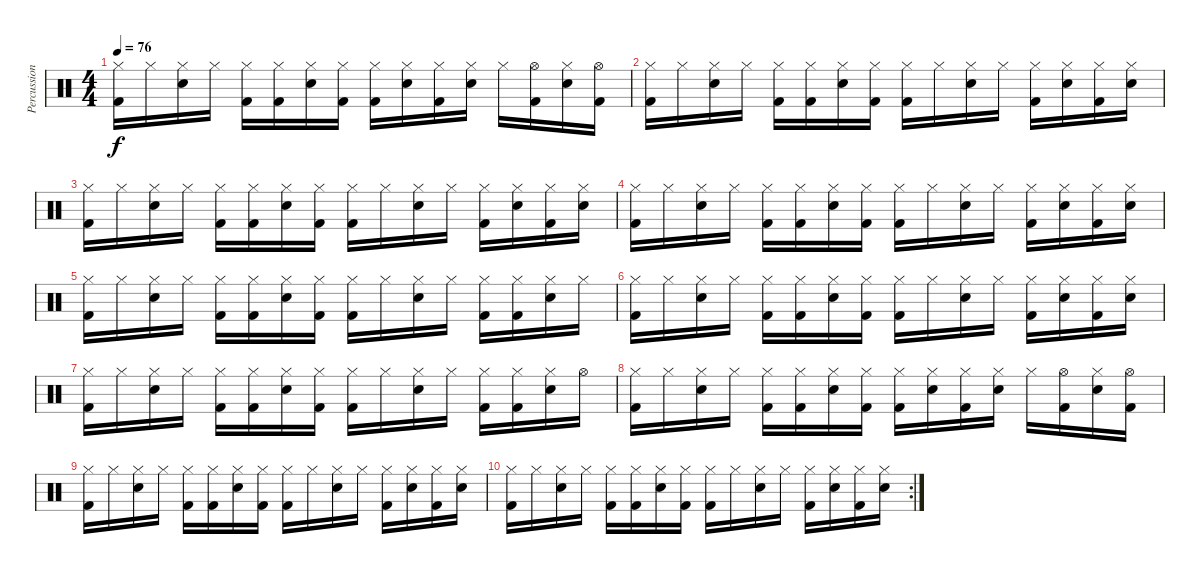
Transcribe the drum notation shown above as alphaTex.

\track ("Percussion" "Percussion") {instrument percussion}
\staff {score}
\articulation defaults
\ts (4 4)
\tempo 76
\clef neutral
\ks c
("Hi-Hat (closed)" "Kick (hit) 2").16{dy f} "Hi-Hat (closed)".16 ("Hi-Hat (closed)" "Snare (hit) 2").16 "Hi-Hat (closed)".16 ("Hi-Hat (closed)" "Kick (hit) 2").16 ("Hi-Hat (closed)" "Kick (hit) 2").16 ("Hi-Hat (closed)" "Snare (hit) 2").16 ("Hi-Hat (closed)" "Kick (hit) 2").16 ("Hi-Hat (closed)" "Kick (hit) 2").16 ("Hi-Hat (closed)" "Snare (hit) 2").16 ("Hi-Hat (closed)" "Kick (hit) 2").16 ("Hi-Hat (closed)" "Snare (hit) 2").16 "Hi-Hat (closed)".16 ("Hi-Hat (open)" "Kick (hit) 2").16 ("Hi-Hat (closed)" "Snare (hit) 2").16 ("Hi-Hat (open)" "Kick (hit) 2").16 |
("Hi-Hat (closed)" "Kick (hit) 2").16 "Hi-Hat (closed)".16 ("Hi-Hat (closed)" "Snare (hit) 2").16 "Hi-Hat (closed)".16 ("Hi-Hat (closed)" "Kick (hit) 2").16 ("Hi-Hat (closed)" "Kick (hit) 2").16 ("Hi-Hat (closed)" "Snare (hit) 2").16 ("Hi-Hat (closed)" "Kick (hit) 2").16 ("Hi-Hat (closed)" "Kick (hit) 2").16 "Hi-Hat (closed)".16 ("Hi-Hat (closed)" "Snare (hit) 2").16 "Hi-Hat (closed)".16 ("Hi-Hat (closed)" "Kick (hit) 2").16 ("Hi-Hat (closed)" "Snare (hit) 2").16 ("Hi-Hat (closed)" "Kick (hit) 2").16 ("Hi-Hat (closed)" "Snare (hit) 2").16 |
("Hi-Hat (closed)" "Kick (hit) 2").16 "Hi-Hat (closed)".16 ("Hi-Hat (closed)" "Snare (hit) 2").16 "Hi-Hat (closed)".16 ("Hi-Hat (closed)" "Kick (hit) 2").16 ("Hi-Hat (closed)" "Kick (hit) 2").16 ("Hi-Hat (closed)" "Snare (hit) 2").16 ("Hi-Hat (closed)" "Kick (hit) 2").16 ("Hi-Hat (closed)" "Kick (hit) 2").16 "Hi-Hat (closed)".16 ("Hi-Hat (closed)" "Snare (hit) 2").16 "Hi-Hat (closed)".16 ("Hi-Hat (closed)" "Kick (hit) 2").16 ("Hi-Hat (closed)" "Snare (hit) 2").16 ("Hi-Hat (closed)" "Kick (hit) 2").16 ("Hi-Hat (closed)" "Snare (hit) 2").16 |
("Hi-Hat (closed)" "Kick (hit) 2").16 "Hi-Hat (closed)".16 ("Hi-Hat (closed)" "Snare (hit) 2").16 "Hi-Hat (closed)".16 ("Hi-Hat (closed)" "Kick (hit) 2").16 ("Hi-Hat (closed)" "Kick (hit) 2").16 ("Hi-Hat (closed)" "Snare (hit) 2").16 ("Hi-Hat (closed)" "Kick (hit) 2").16 ("Hi-Hat (closed)" "Kick (hit) 2").16 "Hi-Hat (closed)".16 ("Hi-Hat (closed)" "Snare (hit) 2").16 "Hi-Hat (closed)".16 ("Hi-Hat (closed)" "Kick (hit) 2").16 ("Hi-Hat (closed)" "Snare (hit) 2").16 ("Hi-Hat (closed)" "Kick (hit) 2").16 ("Hi-Hat (closed)" "Snare (hit) 2").16 |
("Hi-Hat (closed)" "Kick (hit) 2").16 "Hi-Hat (closed)".16 ("Hi-Hat (closed)" "Snare (hit) 2").16 "Hi-Hat (closed)".16 ("Hi-Hat (closed)" "Kick (hit) 2").16 ("Hi-Hat (closed)" "Kick (hit) 2").16 ("Hi-Hat (closed)" "Snare (hit) 2").16 ("Hi-Hat (closed)" "Kick (hit) 2").16 ("Hi-Hat (closed)" "Kick (hit) 2").16 "Hi-Hat (closed)".16 ("Hi-Hat (closed)" "Snare (hit) 2").16 "Hi-Hat (closed)".16 ("Hi-Hat (closed)" "Kick (hit) 2").16 ("Hi-Hat (closed)" "Kick (hit) 2").16 ("Hi-Hat (closed)" "Snare (hit) 2").16 "Hi-Hat (closed)".16 |
("Hi-Hat (closed)" "Kick (hit) 2").16 "Hi-Hat (closed)".16 ("Hi-Hat (closed)" "Snare (hit) 2").16 "Hi-Hat (closed)".16 ("Hi-Hat (closed)" "Kick (hit) 2").16 ("Hi-Hat (closed)" "Kick (hit) 2").16 ("Hi-Hat (closed)" "Snare (hit) 2").16 ("Hi-Hat (closed)" "Kick (hit) 2").16 ("Hi-Hat (closed)" "Kick (hit) 2").16 "Hi-Hat (closed)".16 ("Hi-Hat (closed)" "Snare (hit) 2").16 "Hi-Hat (closed)".16 ("Hi-Hat (closed)" "Kick (hit) 2").16 ("Hi-Hat (closed)" "Snare (hit) 2").16 ("Hi-Hat (closed)" "Kick (hit) 2").16 ("Hi-Hat (closed)" "Snare (hit) 2").16 |
("Hi-Hat (closed)" "Kick (hit) 2").16 "Hi-Hat (closed)".16 ("Hi-Hat (closed)" "Snare (hit) 2").16 "Hi-Hat (closed)".16 ("Hi-Hat (closed)" "Kick (hit) 2").16 ("Hi-Hat (closed)" "Kick (hit) 2").16 ("Hi-Hat (closed)" "Snare (hit) 2").16 ("Hi-Hat (closed)" "Kick (hit) 2").16 ("Hi-Hat (closed)" "Kick (hit) 2").16 "Hi-Hat (closed)".16 ("Hi-Hat (closed)" "Snare (hit) 2").16 "Hi-Hat (closed)".16 ("Hi-Hat (closed)" "Kick (hit) 2").16 ("Hi-Hat (closed)" "Kick (hit) 2").16 ("Hi-Hat (closed)" "Snare (hit) 2").16 "Hi-Hat (open)".16 |
("Hi-Hat (closed)" "Kick (hit) 2").16 "Hi-Hat (closed)".16 ("Hi-Hat (closed)" "Snare (hit) 2").16 "Hi-Hat (closed)".16 ("Hi-Hat (closed)" "Kick (hit) 2").16 ("Hi-Hat (closed)" "Kick (hit) 2").16 ("Hi-Hat (closed)" "Snare (hit) 2").16 ("Hi-Hat (closed)" "Kick (hit) 2").16 ("Hi-Hat (closed)" "Kick (hit) 2").16 ("Hi-Hat (closed)" "Snare (hit) 2").16 ("Hi-Hat (closed)" "Kick (hit) 2").16 ("Hi-Hat (closed)" "Snare (hit) 2").16 "Hi-Hat (closed)".16 ("Hi-Hat (open)" "Kick (hit) 2").16 ("Hi-Hat (closed)" "Snare (hit) 2").16 ("Hi-Hat (open)" "Kick (hit) 2").16 |
("Hi-Hat (closed)" "Kick (hit) 2").16 "Hi-Hat (closed)".16 ("Hi-Hat (closed)" "Snare (hit) 2").16 "Hi-Hat (closed)".16 ("Hi-Hat (closed)" "Kick (hit) 2").16 ("Hi-Hat (closed)" "Kick (hit) 2").16 ("Hi-Hat (closed)" "Snare (hit) 2").16 ("Hi-Hat (closed)" "Kick (hit) 2").16 ("Hi-Hat (closed)" "Kick (hit) 2").16 "Hi-Hat (closed)".16 ("Hi-Hat (closed)" "Snare (hit) 2").16 "Hi-Hat (closed)".16 ("Hi-Hat (closed)" "Kick (hit) 2").16 ("Hi-Hat (closed)" "Snare (hit) 2").16 ("Hi-Hat (closed)" "Kick (hit) 2").16 ("Hi-Hat (closed)" "Snare (hit) 2").16 |
\rc 2
("Hi-Hat (closed)" "Kick (hit) 2").16 "Hi-Hat (closed)".16 ("Hi-Hat (closed)" "Snare (hit) 2").16 "Hi-Hat (closed)".16 ("Hi-Hat (closed)" "Kick (hit) 2").16 ("Hi-Hat (closed)" "Kick (hit) 2").16 ("Hi-Hat (closed)" "Snare (hit) 2").16 ("Hi-Hat (closed)" "Kick (hit) 2").16 ("Hi-Hat (closed)" "Kick (hit) 2").16 "Hi-Hat (closed)".16 ("Hi-Hat (closed)" "Snare (hit) 2").16 "Hi-Hat (closed)".16 ("Hi-Hat (closed)" "Kick (hit) 2").16 ("Hi-Hat (closed)" "Snare (hit) 2").16 ("Hi-Hat (closed)" "Kick (hit) 2").16 ("Hi-Hat (closed)" "Snare (hit) 2").16
